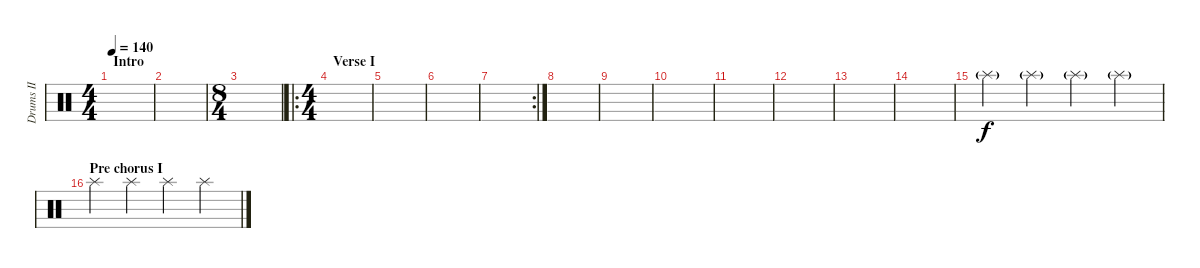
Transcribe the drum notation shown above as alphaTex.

\track ("Drums II" "Drums II") {instrument percussion}
\staff {score}
\articulation defaults
\ts (4 4)
\section ("" "Intro")
\tempo 140
\clef neutral
\ks c
|
|
\ts (8 4)
|
\ro
\ts (4 4)
\section ("" "Verse I")
|
|
|
\rc 2
|
|
|
|
|
|
|
|
"Splash (hit)"{g}.4 "Splash (hit)"{g}.4 "Splash (hit)"{g}.4 "Splash (hit)"{g}.4 |
\section ("" "Pre chorus I")
"Splash (hit)".4{dy f} "Splash (hit)".4 "Splash (hit)".4 "Splash (hit)".4
